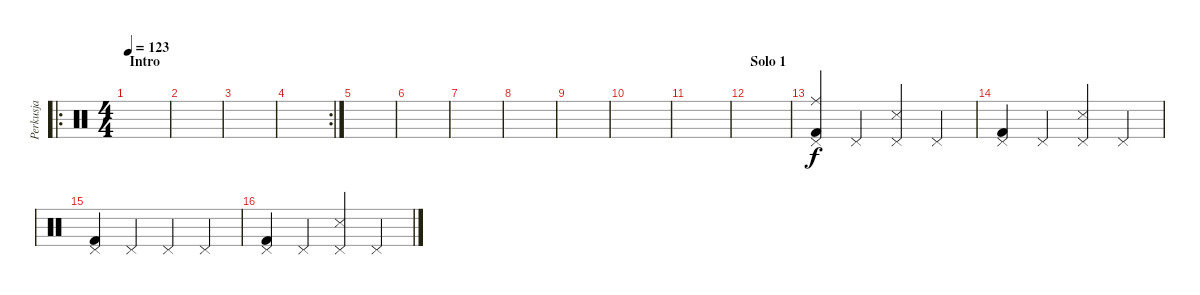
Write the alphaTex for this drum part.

\track ("Perkusja" "Perkusja") {instrument percussion}
\staff {score}
\articulation defaults
\ro
\ts (4 4)
\section ("" "Intro")
\tempo 123
\clef neutral
\ks c
|
|
|
\rc 2
|
|
|
|
|
|
|
|
\section ("" "Solo 1")
|
("Ride (middle)" "Kick (hit) 2" "Pedal Hi-Hat (hit)").4 "Pedal Hi-Hat (hit)".4{dy f} ("Snare (side stick) 3" "Pedal Hi-Hat (hit)").4 "Pedal Hi-Hat (hit)".4 |
("Kick (hit) 2" "Pedal Hi-Hat (hit)").4 "Pedal Hi-Hat (hit)".4 ("Snare (side stick) 3" "Pedal Hi-Hat (hit)").4 "Pedal Hi-Hat (hit)".4 |
("Kick (hit) 2" "Pedal Hi-Hat (hit)").4 "Pedal Hi-Hat (hit)".4 "Pedal Hi-Hat (hit)".4 "Pedal Hi-Hat (hit)".4 |
("Kick (hit) 2" "Pedal Hi-Hat (hit)").4 "Pedal Hi-Hat (hit)".4 ("Snare (side stick) 3" "Pedal Hi-Hat (hit)").4 "Pedal Hi-Hat (hit)".4
